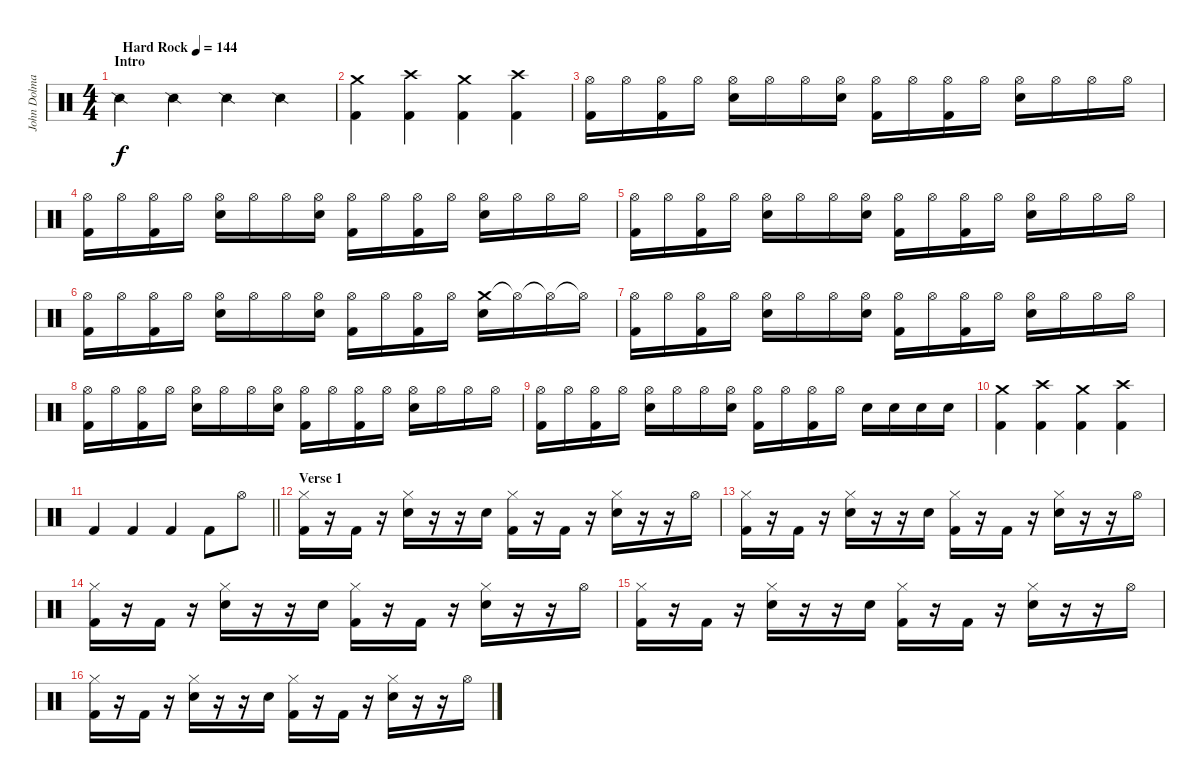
\track ("John Dolmayan" "John Dolma") {instrument percussion}
\staff {score}
\articulation defaults
\ts (4 4)
\section ("" "Intro")
\tempo (144 "Hard Rock")
\clef neutral
\ks c "Snare (side stick) 2".4{dy f} "Snare (side stick) 2".4 "Snare (side stick) 2".4 "Snare (side stick) 2".4
|
("Crash medium (hit)" "Kick (hit) 2").4 ("Crash high (hit)" "Kick (hit) 2").4 ("Crash medium (hit)" "Kick (hit) 2").4 ("Crash high (hit)" "Kick (hit) 2").4 |
("Hi-Hat (open)" "Kick (hit) 2").16 "Hi-Hat (open)".16 ("Hi-Hat (open)" "Kick (hit) 2").16 "Hi-Hat (open)".16 ("Hi-Hat (open)" "Electric Snare (hit)").16 "Hi-Hat (open)".16 "Hi-Hat (open)".16 ("Hi-Hat (open)" "Electric Snare (hit)").16 ("Hi-Hat (open)" "Kick (hit) 2").16 "Hi-Hat (open)".16 ("Hi-Hat (open)" "Kick (hit) 2").16 "Hi-Hat (open)".16 ("Hi-Hat (open)" "Electric Snare (hit)").16 "Hi-Hat (open)".16 "Hi-Hat (open)".16 "Hi-Hat (open)".16 |
("Hi-Hat (open)" "Kick (hit) 2").16 "Hi-Hat (open)".16 ("Hi-Hat (open)" "Kick (hit) 2").16 "Hi-Hat (open)".16 ("Hi-Hat (open)" "Electric Snare (hit)").16 "Hi-Hat (open)".16 "Hi-Hat (open)".16 ("Hi-Hat (open)" "Electric Snare (hit)").16 ("Hi-Hat (open)" "Kick (hit) 2").16 "Hi-Hat (open)".16 ("Hi-Hat (open)" "Kick (hit) 2").16 "Hi-Hat (open)".16 ("Hi-Hat (open)" "Electric Snare (hit)").16 "Hi-Hat (open)".16 "Hi-Hat (open)".16 "Hi-Hat (open)".16 |
("Hi-Hat (open)" "Kick (hit) 2").16 "Hi-Hat (open)".16 ("Hi-Hat (open)" "Kick (hit) 2").16 "Hi-Hat (open)".16 ("Hi-Hat (open)" "Electric Snare (hit)").16 "Hi-Hat (open)".16 "Hi-Hat (open)".16 ("Hi-Hat (open)" "Electric Snare (hit)").16 ("Hi-Hat (open)" "Kick (hit) 2").16 "Hi-Hat (open)".16 ("Hi-Hat (open)" "Kick (hit) 2").16 "Hi-Hat (open)".16 ("Hi-Hat (open)" "Electric Snare (hit)").16 "Hi-Hat (open)".16 "Hi-Hat (open)".16 "Hi-Hat (open)".16 |
("Hi-Hat (open)" "Kick (hit) 2").16 "Hi-Hat (open)".16 ("Hi-Hat (open)" "Kick (hit) 2").16 "Hi-Hat (open)".16 ("Hi-Hat (open)" "Electric Snare (hit)").16 "Hi-Hat (open)".16 "Hi-Hat (open)".16 ("Hi-Hat (open)" "Electric Snare (hit)").16 ("Hi-Hat (open)" "Kick (hit) 2").16 "Hi-Hat (open)".16 ("Hi-Hat (open)" "Kick (hit) 2").16 "Hi-Hat (open)".16 ("Crash medium (hit)" "Electric Snare (hit)").16 "Hi-Hat (open)"{t}.16 "Hi-Hat (open)"{t}.16 "Hi-Hat (open)"{t}.16 |
("Hi-Hat (open)" "Kick (hit) 2").16 "Hi-Hat (open)".16 ("Hi-Hat (open)" "Kick (hit) 2").16 "Hi-Hat (open)".16 ("Hi-Hat (open)" "Electric Snare (hit)").16 "Hi-Hat (open)".16 "Hi-Hat (open)".16 ("Hi-Hat (open)" "Electric Snare (hit)").16 ("Hi-Hat (open)" "Kick (hit) 2").16 "Hi-Hat (open)".16 ("Hi-Hat (open)" "Kick (hit) 2").16 "Hi-Hat (open)".16 ("Hi-Hat (open)" "Electric Snare (hit)").16 "Hi-Hat (open)".16 "Hi-Hat (open)".16 "Hi-Hat (open)".16 |
("Hi-Hat (open)" "Kick (hit) 2").16 "Hi-Hat (open)".16 ("Hi-Hat (open)" "Kick (hit) 2").16 "Hi-Hat (open)".16 ("Hi-Hat (open)" "Electric Snare (hit)").16 "Hi-Hat (open)".16 "Hi-Hat (open)".16 ("Hi-Hat (open)" "Electric Snare (hit)").16 ("Hi-Hat (open)" "Kick (hit) 2").16 "Hi-Hat (open)".16 ("Hi-Hat (open)" "Kick (hit) 2").16 "Hi-Hat (open)".16 ("Hi-Hat (open)" "Electric Snare (hit)").16 "Hi-Hat (open)".16 "Hi-Hat (open)".16 "Hi-Hat (open)".16 |
("Hi-Hat (open)" "Kick (hit) 2").16 "Hi-Hat (open)".16 ("Hi-Hat (open)" "Kick (hit) 2").16 "Hi-Hat (open)".16 ("Hi-Hat (open)" "Electric Snare (hit)").16 "Hi-Hat (open)".16 "Hi-Hat (open)".16 ("Hi-Hat (open)" "Electric Snare (hit)").16 ("Hi-Hat (open)" "Kick (hit) 2").16 "Hi-Hat (open)".16 ("Hi-Hat (open)" "Kick (hit) 2").16 "Hi-Hat (open)".16 "Electric Snare (hit)".16 "Electric Snare (hit)".16 "Electric Snare (hit)".16 "Electric Snare (hit)".16 |
("Crash medium (hit)" "Kick (hit) 2").4 ("Crash high (hit)" "Kick (hit) 2").4 ("Crash medium (hit)" "Kick (hit) 2").4 ("Crash high (hit)" "Kick (hit) 2").4 |
\barLineRight lightlight "Kick (hit) 2".4 "Kick (hit) 2".4 "Kick (hit) 2".4 "Kick (hit) 2".8 "Hi-Hat (open)".8
|
\section ("" "Verse 1")
("Hi-Hat (closed)" "Kick (hit) 2").16 r.16 "Kick (hit) 2".16 r.16 ("Hi-Hat (closed)" "Electric Snare (hit)").16 r.16 r.16 "Electric Snare (hit)".16 ("Hi-Hat (closed)" "Kick (hit) 2").16 r.16 "Kick (hit) 2".16 r.16 ("Hi-Hat (closed)" "Electric Snare (hit)").16 r.16 r.16 "Hi-Hat (open)".16 |
("Hi-Hat (closed)" "Kick (hit) 2").16 r.16 "Kick (hit) 2".16 r.16 ("Hi-Hat (closed)" "Electric Snare (hit)").16 r.16 r.16 "Electric Snare (hit)".16 ("Hi-Hat (closed)" "Kick (hit) 2").16 r.16 "Kick (hit) 2".16 r.16 ("Hi-Hat (closed)" "Electric Snare (hit)").16 r.16 r.16 "Hi-Hat (open)".16 |
("Hi-Hat (closed)" "Kick (hit) 2").16 r.16 "Kick (hit) 2".16 r.16 ("Hi-Hat (closed)" "Electric Snare (hit)").16 r.16 r.16 "Electric Snare (hit)".16 ("Hi-Hat (closed)" "Kick (hit) 2").16 r.16 "Kick (hit) 2".16 r.16 ("Hi-Hat (closed)" "Electric Snare (hit)").16 r.16 r.16 "Hi-Hat (open)".16 |
("Hi-Hat (closed)" "Kick (hit) 2").16 r.16 "Kick (hit) 2".16 r.16 ("Hi-Hat (closed)" "Electric Snare (hit)").16 r.16 r.16 "Electric Snare (hit)".16 ("Hi-Hat (closed)" "Kick (hit) 2").16 r.16 "Kick (hit) 2".16 r.16 ("Hi-Hat (closed)" "Electric Snare (hit)").16 r.16 r.16 "Hi-Hat (open)".16 |
("Hi-Hat (closed)" "Kick (hit) 2").16 r.16 "Kick (hit) 2".16 r.16 ("Hi-Hat (closed)" "Electric Snare (hit)").16 r.16 r.16 "Electric Snare (hit)".16 ("Hi-Hat (closed)" "Kick (hit) 2").16 r.16 "Kick (hit) 2".16 r.16 ("Hi-Hat (closed)" "Electric Snare (hit)").16 r.16 r.16 "Hi-Hat (open)".16
